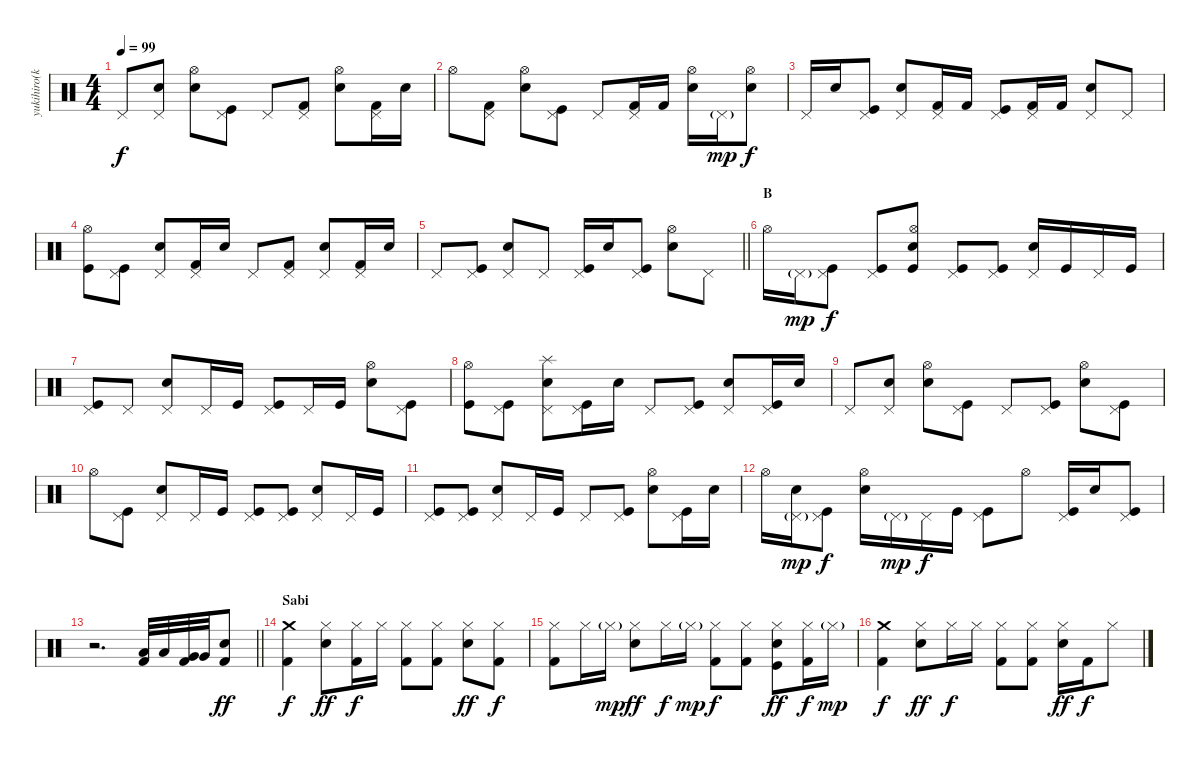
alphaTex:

\track ("yukihiro(kami)" "yukihiro(k") {instrument percussion}
\staff {score}
\articulation defaults
\ts (4 4)
\tempo 99
\clef neutral
\ks c "Pedal Hi-Hat (hit)".8{dy f}
("Pedal Hi-Hat (hit)" "Snare (hit) 2").8 ("Hi-Hat (open)" "Snare (hit) 2").8 ("Pedal Hi-Hat (hit)" "Kick (hit)").8 "Pedal Hi-Hat (hit)".8 ("Pedal Hi-Hat (hit)" "Kick (hit) 2").8 ("Hi-Hat (open)" "Snare (hit) 2").8 ("Pedal Hi-Hat (hit)" "Kick (hit) 2").16 "Electric Snare (hit)".16 |
"Hi-Hat (open)".8 ("Pedal Hi-Hat (hit)" "Kick (hit) 2").8 ("Hi-Hat (open)" "Snare (hit) 2").8 ("Pedal Hi-Hat (hit)" "Kick (hit)").8 "Pedal Hi-Hat (hit)".8 ("Pedal Hi-Hat (hit)" "Kick (hit) 2").16 "Kick (hit) 2".16 ("Hi-Hat (open)" "Snare (hit) 2").16 "Pedal Hi-Hat (hit)"{g}.16{dy mp} ("Hi-Hat (open)" "Snare (hit) 2").8{dy f} |
"Pedal Hi-Hat (hit)".16 "Snare (hit) 2".16 ("Pedal Hi-Hat (hit)" "Kick (hit)").8 ("Pedal Hi-Hat (hit)" "Snare (hit) 2").8 ("Pedal Hi-Hat (hit)" "Kick (hit) 2").16 "Kick (hit) 2".16 ("Pedal Hi-Hat (hit)" "Kick (hit)").8 ("Pedal Hi-Hat (hit)" "Kick (hit) 2").16 "Kick (hit) 2".16 ("Pedal Hi-Hat (hit)" "Snare (hit) 2").8 "Pedal Hi-Hat (hit)".8 |
("Hi-Hat (open)" "Kick (hit)").8 ("Pedal Hi-Hat (hit)" "Kick (hit)").8 ("Pedal Hi-Hat (hit)" "Snare (hit) 2").8 ("Pedal Hi-Hat (hit)" "Kick (hit) 2").16 "Snare (hit) 2".16 "Pedal Hi-Hat (hit)".8 ("Pedal Hi-Hat (hit)" "Kick (hit) 2").8 ("Pedal Hi-Hat (hit)" "Snare (hit) 2").8 ("Pedal Hi-Hat (hit)" "Kick (hit) 2").16 "Snare (hit) 2".16 |
\barLineRight lightlight "Pedal Hi-Hat (hit)".8
("Pedal Hi-Hat (hit)" "Kick (hit)").8 ("Pedal Hi-Hat (hit)" "Snare (hit) 2").8 "Pedal Hi-Hat (hit)".8 ("Pedal Hi-Hat (hit)" "Kick (hit)").16 "Electric Snare (hit)".16 ("Pedal Hi-Hat (hit)" "Kick (hit)").8 ("Hi-Hat (open)" "Snare (hit) 2").8 "Pedal Hi-Hat (hit)".8 |
\section ("" "B")
"Hi-Hat (open)".16 "Pedal Hi-Hat (hit)"{g}.16{dy mp} ("Pedal Hi-Hat (hit)" "Kick (hit)").8{dy f} ("Pedal Hi-Hat (hit)" "Kick (hit)").8 ("Hi-Hat (open)" "Snare (hit) 2" "Kick (hit)").8 ("Pedal Hi-Hat (hit)" "Kick (hit)").8 ("Pedal Hi-Hat (hit)" "Kick (hit)").8 ("Pedal Hi-Hat (hit)" "Snare (hit) 2").16 "Kick (hit)".16 "Pedal Hi-Hat (hit)".16 "Kick (hit)".16 |
("Pedal Hi-Hat (hit)" "Kick (hit)").8 "Pedal Hi-Hat (hit)".8 ("Pedal Hi-Hat (hit)" "Snare (hit) 2").8 "Pedal Hi-Hat (hit)".16 "Kick (hit)".16 ("Pedal Hi-Hat (hit)" "Kick (hit)").8 "Pedal Hi-Hat (hit)".16 "Kick (hit)".16 ("Hi-Hat (open)" "Snare (hit) 2").8 ("Pedal Hi-Hat (hit)" "Kick (hit)").8 |
("Hi-Hat (open)" "Kick (hit)").8 ("Pedal Hi-Hat (hit)" "Kick (hit)").8 ("Splash (hit)" "Pedal Hi-Hat (hit)" "Snare (hit) 2").8 ("Pedal Hi-Hat (hit)" "Kick (hit)").16 "Snare (hit) 2".16 "Pedal Hi-Hat (hit)".8 ("Pedal Hi-Hat (hit)" "Kick (hit)").8 ("Pedal Hi-Hat (hit)" "Snare (hit) 2").8 ("Pedal Hi-Hat (hit)" "Kick (hit)").16 "Snare (hit) 2".16 |
"Pedal Hi-Hat (hit)".8 ("Pedal Hi-Hat (hit)" "Snare (hit) 2").8 ("Hi-Hat (open)" "Snare (hit) 2").8 ("Pedal Hi-Hat (hit)" "Kick (hit)").8 "Pedal Hi-Hat (hit)".8 ("Pedal Hi-Hat (hit)" "Kick (hit)").8 ("Hi-Hat (open)" "Electric Snare (hit)").8 ("Pedal Hi-Hat (hit)" "Kick (hit)").8 |
"Hi-Hat (open)".8 ("Pedal Hi-Hat (hit)" "Kick (hit)").8 ("Pedal Hi-Hat (hit)" "Snare (hit) 2").8 "Pedal Hi-Hat (hit)".16 "Kick (hit)".16 ("Pedal Hi-Hat (hit)" "Kick (hit)").8 ("Pedal Hi-Hat (hit)" "Kick (hit)").8 ("Pedal Hi-Hat (hit)" "Snare (hit) 2").8 "Pedal Hi-Hat (hit)".16 "Kick (hit)".16 |
("Pedal Hi-Hat (hit)" "Kick (hit)").8 ("Pedal Hi-Hat (hit)" "Kick (hit)").8 ("Pedal Hi-Hat (hit)" "Snare (hit) 2").8 "Pedal Hi-Hat (hit)".16 "Kick (hit)".16 "Pedal Hi-Hat (hit)".8 ("Pedal Hi-Hat (hit)" "Kick (hit)").8 ("Hi-Hat (open)" "Snare (hit) 2").8 ("Pedal Hi-Hat (hit)" "Kick (hit)").16 "Snare (hit) 2".16 |
"Hi-Hat (open)".16 ("Pedal Hi-Hat (hit)"{g} "Snare (hit) 2").16{dy mp} ("Pedal Hi-Hat (hit)" "Kick (hit)").8{dy f} ("Hi-Hat (open)" "Snare (hit) 2").16 "Pedal Hi-Hat (hit)"{g}.16{dy mp} "Pedal Hi-Hat (hit)".16{dy f} "Kick (hit)".16 ("Pedal Hi-Hat (hit)" "Kick (hit)").8 "Hi-Hat (open)".8 ("Pedal Hi-Hat (hit)" "Kick (hit)").16 "Snare (hit) 2".16 ("Pedal Hi-Hat (hit)" "Kick (hit)").8 |
\barLineRight lightlight
r.2{d volume 15} ("Low Tom (hit)" "Kick (hit) 2").32 "Low Tom (hit)".32 ("Very Low Tom (hit)" "Kick (hit) 2").32 "Very Low Tom (hit)".32 ("Snare (hit) 2" "Kick (hit) 2").8{dy ff} |
\section ("" "Sabi")
("Crash medium (hit)" "Kick (hit) 2").4{dy f} ("Hi-Hat (closed)" "Snare (hit) 2").8{dy ff} ("Hi-Hat (closed)" "Kick (hit) 2").16{dy f} "Hi-Hat (closed)".16 ("Hi-Hat (closed)" "Kick (hit) 2").8 ("Hi-Hat (closed)" "Kick (hit) 2").8 ("Hi-Hat (closed)" "Snare (hit) 2").8{dy ff} ("Hi-Hat (closed)" "Kick (hit) 2").8{dy f} |
("Hi-Hat (closed)" "Kick (hit) 2").8 "Hi-Hat (closed)".16 "Hi-Hat (closed)"{g}.16{dy mp} ("Hi-Hat (closed)" "Snare (hit) 2").8{dy ff} "Hi-Hat (closed)".16{dy f} "Hi-Hat (closed)"{g}.16{dy mp} ("Hi-Hat (closed)" "Kick (hit) 2").8{dy f} ("Hi-Hat (closed)" "Kick (hit) 2").8 ("Hi-Hat (closed)" "Snare (hit) 2" "Kick (hit)").8{dy ff} ("Hi-Hat (closed)" "Kick (hit) 2").16{dy f} "Hi-Hat (closed)"{g}.16{dy mp} |
("Crash medium (hit)" "Kick (hit) 2").4{dy f} ("Hi-Hat (closed)" "Snare (hit) 2").8{dy ff} "Hi-Hat (closed)".16{dy f} "Hi-Hat (closed)".16 ("Hi-Hat (closed)" "Kick (hit) 2").8 ("Hi-Hat (closed)" "Kick (hit) 2").8 ("Hi-Hat (closed)" "Snare (hit) 2").16{dy ff} "Kick (hit) 2".16{dy f} "Hi-Hat (closed)".8
